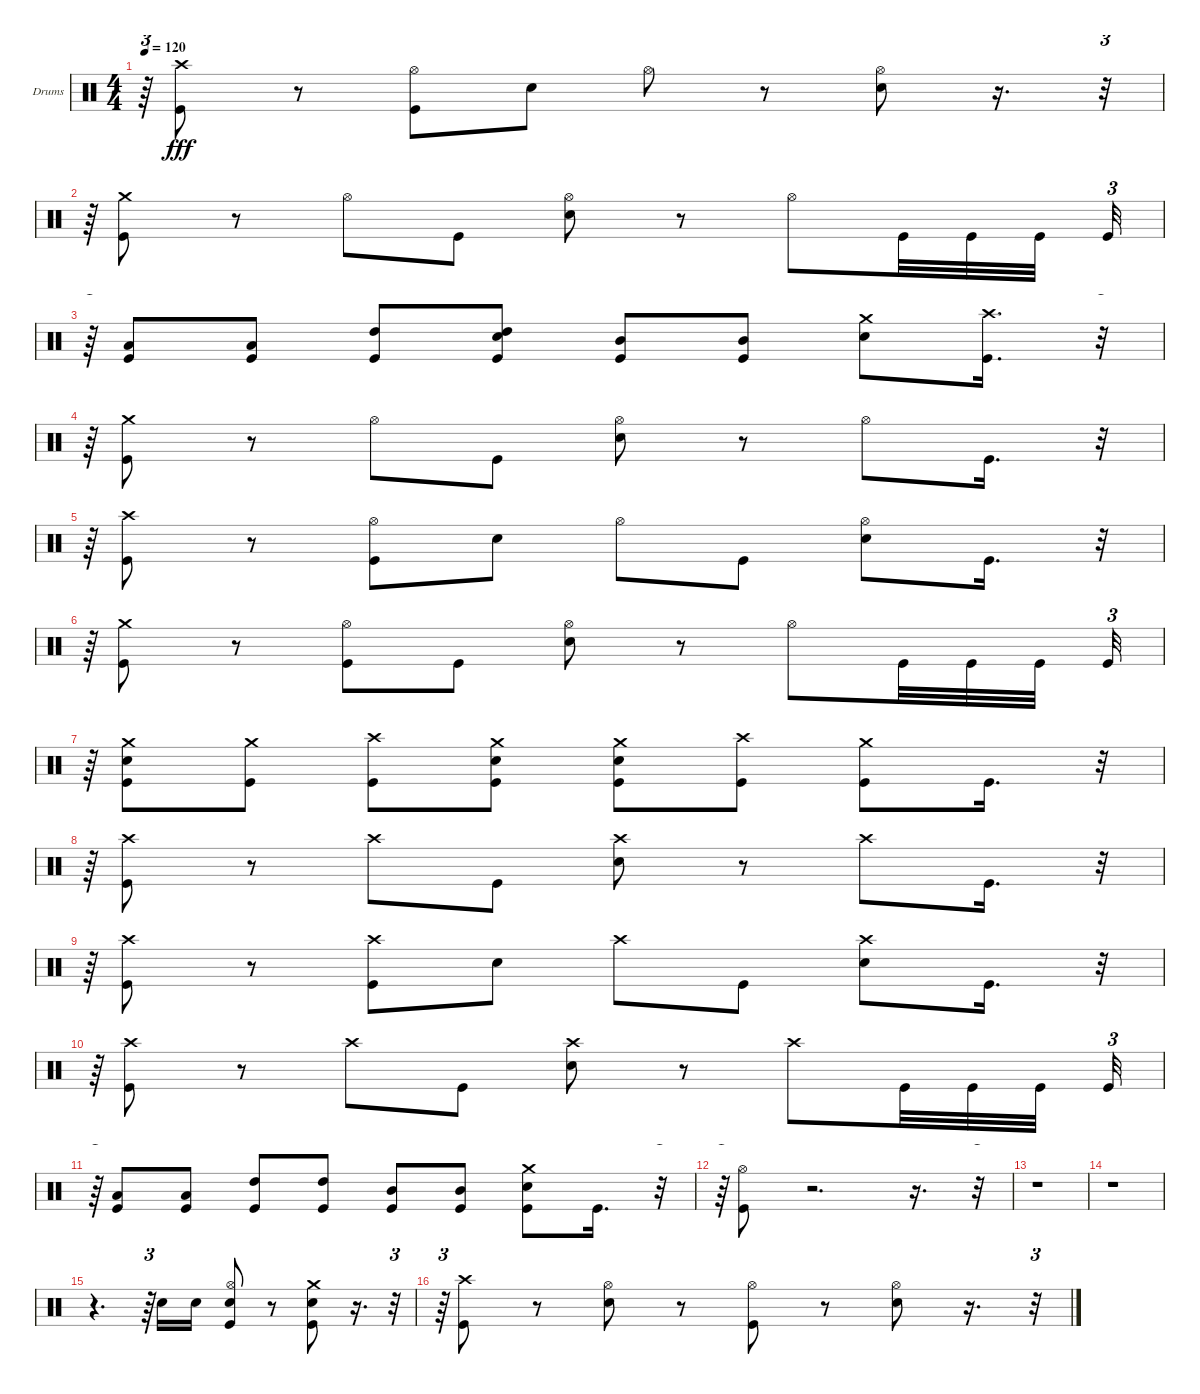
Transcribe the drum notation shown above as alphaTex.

\bracketExtendMode groupsimilarinstruments
\firstSystemTrackNameOrientation horizontal
\otherSystemsTrackNameOrientation horizontal
\track ("Drums" "Drums") {instrument percussion}
\staff {score}
\articulation defaults
\ts (4 4)
\tempo 120
\clef neutral
\ks c
r.64{tu (3 2) dy fff} ("Crash high (hit)" "Kick (hit)").8 r.8 ("Hi-Hat (open)" "Kick (hit)").8 "Snare (hit) 2".8 "Hi-Hat (open)".8 r.8 ("Snare (hit) 2" "Hi-Hat (open)").8 r.16{d} r.32{tu (3 2)} |
r.64{tu (3 2)} ("Crash medium (hit)" "Kick (hit)").8 r.8 "Hi-Hat (open)".8 "Kick (hit)".8 ("Hi-Hat (open)" "Snare (hit) 2").8 r.8 "Hi-Hat (open)".8 "Kick (hit)".32 "Kick (hit)".32 "Kick (hit)".32 "Kick (hit)".32{tu (3 2)} |
r.64{tu (3 2)} ("Low Tom (hit)" "Kick (hit)").8 ("Low Tom (hit)" "Kick (hit)").8 ("High Tom (hit)" "Kick (hit)").8 ("High Tom (hit)" "Kick (hit)" "Snare (hit) 2").8 ("Mid Tom (hit)" "Kick (hit)").8 ("Mid Tom (hit)" "Kick (hit)").8 ("Snare (hit) 2" "Crash medium (hit)").8 ("Kick (hit)" "Crash high (hit)").16{d} r.32{tu (3 2)} |
r.64{tu (3 2)} ("Kick (hit)" "Crash medium (hit)").8 r.8 "Hi-Hat (open)".8 "Kick (hit)".8 ("Snare (hit) 2" "Hi-Hat (open)").8 r.8 "Hi-Hat (open)".8 "Kick (hit)".16{d} r.32{tu (3 2)} |
r.64{tu (3 2)} ("Kick (hit)" "Crash high (hit)").8 r.8 ("Kick (hit)" "Hi-Hat (open)").8 "Snare (hit) 2".8 "Hi-Hat (open)".8 "Kick (hit)".8 ("Snare (hit) 2" "Hi-Hat (open)").8 "Kick (hit)".16{d} r.32{tu (3 2)} |
r.64{tu (3 2)} ("Crash medium (hit)" "Kick (hit)").8 r.8 ("Hi-Hat (open)" "Kick (hit)").8 "Kick (hit)".8 ("Hi-Hat (open)" "Snare (hit) 2").8 r.8 "Hi-Hat (open)".8 "Kick (hit)".32 "Kick (hit)".32 "Kick (hit)".32 "Kick (hit)".32{tu (3 2)} |
r.64{tu (3 2)} ("Snare (hit) 2" "Crash medium (hit)" "Kick (hit)").8 ("Crash medium (hit)" "Kick (hit)").8 ("Crash high (hit)" "Kick (hit)").8 ("Crash medium (hit)" "Kick (hit)" "Snare (hit) 2").8 ("Crash medium (hit)" "Kick (hit)" "Snare (hit) 2").8 ("Crash high (hit)" "Kick (hit)").8 ("Kick (hit)" "Crash medium (hit)").8 "Kick (hit)".16{d} r.32{tu (3 2)} |
r.64{tu (3 2)} ("Crash high (hit)" "Kick (hit)").8 r.8 "Crash high (hit)".8 "Kick (hit)".8 ("Crash high (hit)" "Snare (hit) 2").8 r.8 "Crash high (hit)".8 "Kick (hit)".16{d} r.32{tu (3 2)} |
r.64{tu (3 2)} ("Crash high (hit)" "Kick (hit)").8 r.8 ("Crash high (hit)" "Kick (hit)").8 "Snare (hit) 2".8 "Crash high (hit)".8 "Kick (hit)".8 ("Crash high (hit)" "Snare (hit) 2").8 "Kick (hit)".16{d} r.32{tu (3 2)} |
r.64{tu (3 2)} ("Kick (hit)" "Crash high (hit)").8 r.8 "Crash high (hit)".8 "Kick (hit)".8 ("Snare (hit) 2" "Crash high (hit)").8 r.8 "Crash high (hit)".8 "Kick (hit)".32 "Kick (hit)".32 "Kick (hit)".32 "Kick (hit)".32{tu (3 2)} |
r.64{tu (3 2)} ("Low Tom (hit)" "Kick (hit)").8 ("Low Tom (hit)" "Kick (hit)").8 ("High Tom (hit)" "Kick (hit)").8 ("High Tom (hit)" "Kick (hit)").8 ("Mid Tom (hit)" "Kick (hit)").8 ("Mid Tom (hit)" "Kick (hit)").8 ("Crash medium (hit)" "Kick (hit)" "Snare (hit) 2").8 "Kick (hit)".16{d} r.32{tu (3 2)} |
r.64{tu (3 2)} ("Hi-Hat (open)" "Kick (hit)").8 r.2{d} r.16{d} r.32{tu (3 2)} |
r.1 |
r.1 |
r.4{d} r.64{tu (3 2)} "Snare (hit) 2".16 "Snare (hit) 2".16 ("Kick (hit)" "Snare (hit) 2" "Hi-Hat (open)").8 r.8 ("Kick (hit)" "Snare (hit) 2" "Crash medium (hit)").8 r.16{d} r.32{tu (3 2)} |
r.64{tu (3 2)} ("Kick (hit)" "Crash high (hit)").8 r.8 ("Snare (hit) 2" "Hi-Hat (open)").8 r.8 ("Kick (hit)" "Hi-Hat (open)").8 r.8 ("Snare (hit) 2" "Hi-Hat (open)").8 r.16{d} r.32{tu (3 2)}
